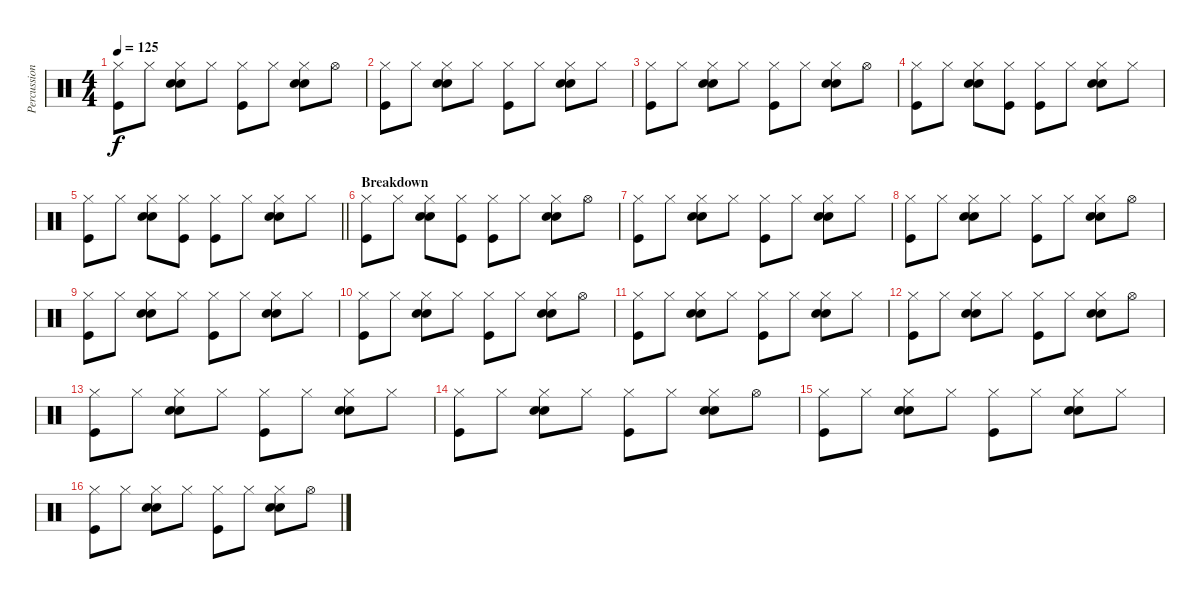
\track ("Percussion" "Percussion") {instrument percussion}
\staff {score}
\articulation defaults
\ts (4 4)
\tempo 125
\clef neutral
\ks c
("Hi-Hat (closed)" "Kick (hit)").8{dy f} "Hi-Hat (closed)".8 ("Hi-Hat (closed)" "Hand Clap (hit)" "Snare (hit) 2").8 "Hi-Hat (closed)".8 ("Hi-Hat (closed)" "Kick (hit)").8 "Hi-Hat (closed)".8 ("Hi-Hat (closed)" "Hand Clap (hit)" "Snare (hit) 2").8 "Hi-Hat (open)".8 |
("Hi-Hat (closed)" "Kick (hit)").8 "Hi-Hat (closed)".8 ("Hi-Hat (closed)" "Hand Clap (hit)" "Snare (hit) 2").8 "Hi-Hat (closed)".8 ("Hi-Hat (closed)" "Kick (hit)").8 "Hi-Hat (closed)".8 ("Hi-Hat (closed)" "Hand Clap (hit)" "Snare (hit) 2").8 "Hi-Hat (closed)".8 |
("Hi-Hat (closed)" "Kick (hit)").8 "Hi-Hat (closed)".8 ("Hi-Hat (closed)" "Hand Clap (hit)" "Snare (hit) 2").8 "Hi-Hat (closed)".8 ("Hi-Hat (closed)" "Kick (hit)").8 "Hi-Hat (closed)".8 ("Hi-Hat (closed)" "Hand Clap (hit)" "Snare (hit) 2").8 "Hi-Hat (open)".8 |
("Hi-Hat (closed)" "Kick (hit)").8 "Hi-Hat (closed)".8 ("Hi-Hat (closed)" "Hand Clap (hit)" "Snare (hit) 2").8 ("Hi-Hat (closed)" "Kick (hit)").8 ("Hi-Hat (closed)" "Kick (hit)").8 "Hi-Hat (closed)".8 ("Hi-Hat (closed)" "Hand Clap (hit)" "Snare (hit) 2").8 "Hi-Hat (closed)".8 |
\barLineRight lightlight
("Hi-Hat (closed)" "Kick (hit)").8 "Hi-Hat (closed)".8 ("Hi-Hat (closed)" "Hand Clap (hit)" "Snare (hit) 2").8 ("Hi-Hat (closed)" "Kick (hit)").8 ("Hi-Hat (closed)" "Kick (hit)").8 "Hi-Hat (closed)".8 ("Hi-Hat (closed)" "Hand Clap (hit)" "Snare (hit) 2").8 "Hi-Hat (closed)".8 |
\section ("" "Breakdown")
("Hi-Hat (closed)" "Kick (hit)").8 "Hi-Hat (closed)".8 ("Hi-Hat (closed)" "Hand Clap (hit)" "Snare (hit) 2").8 ("Hi-Hat (closed)" "Kick (hit)").8 ("Hi-Hat (closed)" "Kick (hit)").8 "Hi-Hat (closed)".8 ("Hi-Hat (closed)" "Hand Clap (hit)" "Snare (hit) 2").8 "Hi-Hat (open)".8 |
("Hi-Hat (closed)" "Kick (hit)").8 "Hi-Hat (closed)".8 ("Hi-Hat (closed)" "Hand Clap (hit)" "Snare (hit) 2").8 "Hi-Hat (closed)".8 ("Hi-Hat (closed)" "Kick (hit)").8 "Hi-Hat (closed)".8 ("Hi-Hat (closed)" "Hand Clap (hit)" "Snare (hit) 2").8 "Hi-Hat (closed)".8 |
("Hi-Hat (closed)" "Kick (hit)").8 "Hi-Hat (closed)".8 ("Hi-Hat (closed)" "Hand Clap (hit)" "Snare (hit) 2").8 "Hi-Hat (closed)".8 ("Hi-Hat (closed)" "Kick (hit)").8 "Hi-Hat (closed)".8 ("Hi-Hat (closed)" "Hand Clap (hit)" "Snare (hit) 2").8 "Hi-Hat (open)".8 |
("Hi-Hat (closed)" "Kick (hit)").8 "Hi-Hat (closed)".8 ("Hi-Hat (closed)" "Hand Clap (hit)" "Snare (hit) 2").8 "Hi-Hat (closed)".8 ("Hi-Hat (closed)" "Kick (hit)").8 "Hi-Hat (closed)".8 ("Hi-Hat (closed)" "Hand Clap (hit)" "Snare (hit) 2").8 "Hi-Hat (closed)".8 |
("Hi-Hat (closed)" "Kick (hit)").8 "Hi-Hat (closed)".8 ("Hi-Hat (closed)" "Hand Clap (hit)" "Snare (hit) 2").8 "Hi-Hat (closed)".8 ("Hi-Hat (closed)" "Kick (hit)").8 "Hi-Hat (closed)".8 ("Hi-Hat (closed)" "Hand Clap (hit)" "Snare (hit) 2").8 "Hi-Hat (open)".8 |
("Hi-Hat (closed)" "Kick (hit)").8 "Hi-Hat (closed)".8 ("Hi-Hat (closed)" "Hand Clap (hit)" "Snare (hit) 2").8 "Hi-Hat (closed)".8 ("Hi-Hat (closed)" "Kick (hit)").8 "Hi-Hat (closed)".8 ("Hi-Hat (closed)" "Hand Clap (hit)" "Snare (hit) 2").8 "Hi-Hat (closed)".8 |
("Hi-Hat (closed)" "Kick (hit)").8 "Hi-Hat (closed)".8 ("Hi-Hat (closed)" "Hand Clap (hit)" "Snare (hit) 2").8 "Hi-Hat (closed)".8 ("Hi-Hat (closed)" "Kick (hit)").8 "Hi-Hat (closed)".8 ("Hi-Hat (closed)" "Hand Clap (hit)" "Snare (hit) 2").8 "Hi-Hat (open)".8 |
("Hi-Hat (closed)" "Kick (hit)").8 "Hi-Hat (closed)".8 ("Hi-Hat (closed)" "Hand Clap (hit)" "Snare (hit) 2").8 "Hi-Hat (closed)".8 ("Hi-Hat (closed)" "Kick (hit)").8 "Hi-Hat (closed)".8 ("Hi-Hat (closed)" "Hand Clap (hit)" "Snare (hit) 2").8 "Hi-Hat (closed)".8 |
("Hi-Hat (closed)" "Kick (hit)").8 "Hi-Hat (closed)".8 ("Hi-Hat (closed)" "Hand Clap (hit)" "Snare (hit) 2").8 "Hi-Hat (closed)".8 ("Hi-Hat (closed)" "Kick (hit)").8 "Hi-Hat (closed)".8 ("Hi-Hat (closed)" "Hand Clap (hit)" "Snare (hit) 2").8 "Hi-Hat (open)".8 |
("Hi-Hat (closed)" "Kick (hit)").8 "Hi-Hat (closed)".8 ("Hi-Hat (closed)" "Hand Clap (hit)" "Snare (hit) 2").8 "Hi-Hat (closed)".8 ("Hi-Hat (closed)" "Kick (hit)").8 "Hi-Hat (closed)".8 ("Hi-Hat (closed)" "Hand Clap (hit)" "Snare (hit) 2").8 "Hi-Hat (closed)".8 |
("Hi-Hat (closed)" "Kick (hit)").8 "Hi-Hat (closed)".8 ("Hi-Hat (closed)" "Hand Clap (hit)" "Snare (hit) 2").8 "Hi-Hat (closed)".8 ("Hi-Hat (closed)" "Kick (hit)").8 "Hi-Hat (closed)".8 ("Hi-Hat (closed)" "Hand Clap (hit)" "Snare (hit) 2").8 "Hi-Hat (open)".8
